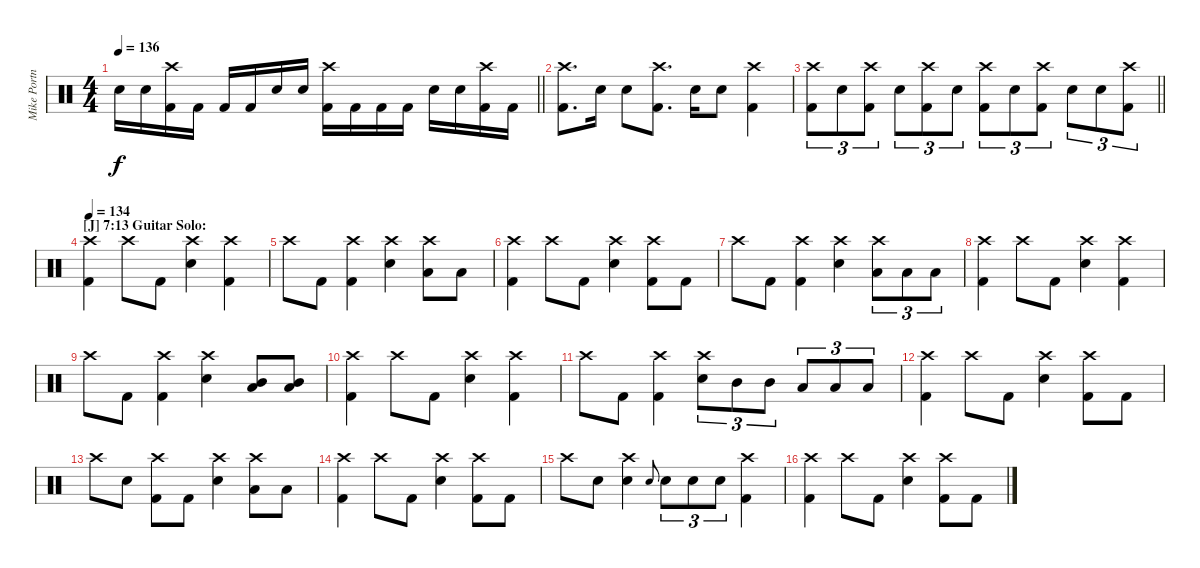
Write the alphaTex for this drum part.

\track ("Mike Portnoy - Drum" "Mike Portn") {instrument percussion}
\staff {score}
\articulation defaults
\ts (4 4)
\tempo 136
\clef neutral
\barLineRight lightlight
\ks c "Electric Snare (hit)".16{dy f} "Electric Snare (hit)".16
("Crash high (hit)" "Kick (hit) 2").16 "Kick (hit) 2".16 "Kick (hit) 2".16 "Kick (hit) 2".16 "Electric Snare (hit)".16 "Electric Snare (hit)".16 ("Crash high (hit)" "Kick (hit) 2").16 "Kick (hit) 2".16 "Kick (hit) 2".16 "Kick (hit) 2".16 "Electric Snare (hit)".16 "Electric Snare (hit)".16 ("Crash high (hit)" "Kick (hit) 2").16 "Kick (hit) 2".16 |
("Crash high (hit)" "Kick (hit) 2").8{d} "Electric Snare (hit)".16 "Electric Snare (hit)".8 ("Crash high (hit)" "Kick (hit) 2").8{d} "Electric Snare (hit)".16 "Electric Snare (hit)".8 ("Crash high (hit)" "Kick (hit) 2").4 |
\barLineRight lightlight
("Crash high (hit)" "Kick (hit) 2").8{tu (3 2)} "Electric Snare (hit)".8{tu (3 2)} ("Crash high (hit)" "Kick (hit) 2").8{tu (3 2)} "Electric Snare (hit)".8{tu (3 2)} ("Crash high (hit)" "Kick (hit) 2").8{tu (3 2)} "Electric Snare (hit)".8{tu (3 2)} ("Crash high (hit)" "Kick (hit) 2").8{tu (3 2)} "Electric Snare (hit)".8{tu (3 2)} ("Crash high (hit)" "Kick (hit) 2").8{tu (3 2)} "Electric Snare (hit)".8{tu (3 2)} "Electric Snare (hit)".8{tu (3 2)} ("Crash high (hit)" "Kick (hit) 2").8{tu (3 2)} |
\section ("" "[J] 7:13 Guitar Solo:")
\tempo 134
("Crash high (hit)" "Kick (hit) 2").4 "Crash high (hit)".8 "Kick (hit) 2".8 ("Crash high (hit)" "Electric Snare (hit)").4 ("Crash high (hit)" "Kick (hit) 2").4 |
"Crash high (hit)".8 "Kick (hit) 2".8 ("Crash high (hit)" "Kick (hit) 2").4 ("Crash high (hit)" "Electric Snare (hit)").4 ("Crash high (hit)" "Low Tom (hit)").8 "Low Tom (hit)".8 |
("Crash high (hit)" "Kick (hit) 2").4 "Crash high (hit)".8 "Kick (hit) 2".8 ("Crash high (hit)" "Electric Snare (hit)").4 ("Crash high (hit)" "Kick (hit) 2").8 "Kick (hit) 2".8 |
"Crash high (hit)".8 "Kick (hit) 2".8 ("Crash high (hit)" "Kick (hit) 2").4 ("Crash high (hit)" "Electric Snare (hit)").4 ("Crash high (hit)" "Low Tom (hit)").8{tu (3 2)} "Low Tom (hit)".8{tu (3 2)} "Low Tom (hit)".8{tu (3 2)} |
("Crash high (hit)" "Kick (hit) 2").4 "Crash high (hit)".8 "Kick (hit) 2".8 ("Crash high (hit)" "Electric Snare (hit)").4 ("Crash high (hit)" "Kick (hit) 2").4 |
"Crash high (hit)".8 "Kick (hit) 2".8 ("Crash high (hit)" "Kick (hit) 2").4 ("Crash high (hit)" "Electric Snare (hit)").4 ("Mid Tom (hit)" "Low Tom (hit)").8 ("Mid Tom (hit)" "Low Tom (hit)").8 |
("Crash high (hit)" "Kick (hit) 2").4 "Crash high (hit)".8 "Kick (hit) 2".8 ("Crash high (hit)" "Electric Snare (hit)").4 ("Crash high (hit)" "Kick (hit) 2").4 |
"Crash high (hit)".8 "Kick (hit) 2".8 ("Crash high (hit)" "Kick (hit) 2").4 ("Crash high (hit)" "Electric Snare (hit)").8{tu (3 2)} "Mid Tom (hit)".8{tu (3 2)} "Mid Tom (hit)".8{tu (3 2)} "Low Tom (hit)".8{tu (3 2)} "Low Tom (hit)".8{tu (3 2)} "Low Tom (hit)".8{tu (3 2)} |
("Crash high (hit)" "Kick (hit) 2").4 "Crash high (hit)".8 "Kick (hit) 2".8 ("Crash high (hit)" "Electric Snare (hit)").4 ("Crash high (hit)" "Kick (hit) 2").8 "Kick (hit) 2".8 |
"Crash high (hit)".8 "Electric Snare (hit)".8 ("Crash high (hit)" "Kick (hit) 2").8 "Kick (hit) 2".8 ("Crash high (hit)" "Electric Snare (hit)").4 ("Crash high (hit)" "Low Tom (hit)").8 "Low Tom (hit)".8 |
("Crash high (hit)" "Kick (hit) 2").4 "Crash high (hit)".8 "Kick (hit) 2".8 ("Crash high (hit)" "Electric Snare (hit)").4 ("Crash high (hit)" "Kick (hit) 2").8 "Kick (hit) 2".8 |
"Crash high (hit)".8 "Electric Snare (hit)".8 ("Crash high (hit)" "Electric Snare (hit)").4 "Electric Snare (hit)".8{gr onbeat} "Electric Snare (hit)".8{tu (3 2)} "Electric Snare (hit)".8{tu (3 2)} "Electric Snare (hit)".8{tu (3 2)} ("Crash high (hit)" "Kick (hit) 2").4 |
("Crash high (hit)" "Kick (hit) 2").4 "Crash high (hit)".8 "Kick (hit) 2".8 ("Crash high (hit)" "Electric Snare (hit)").4 ("Crash high (hit)" "Kick (hit) 2").8 "Kick (hit) 2".8
